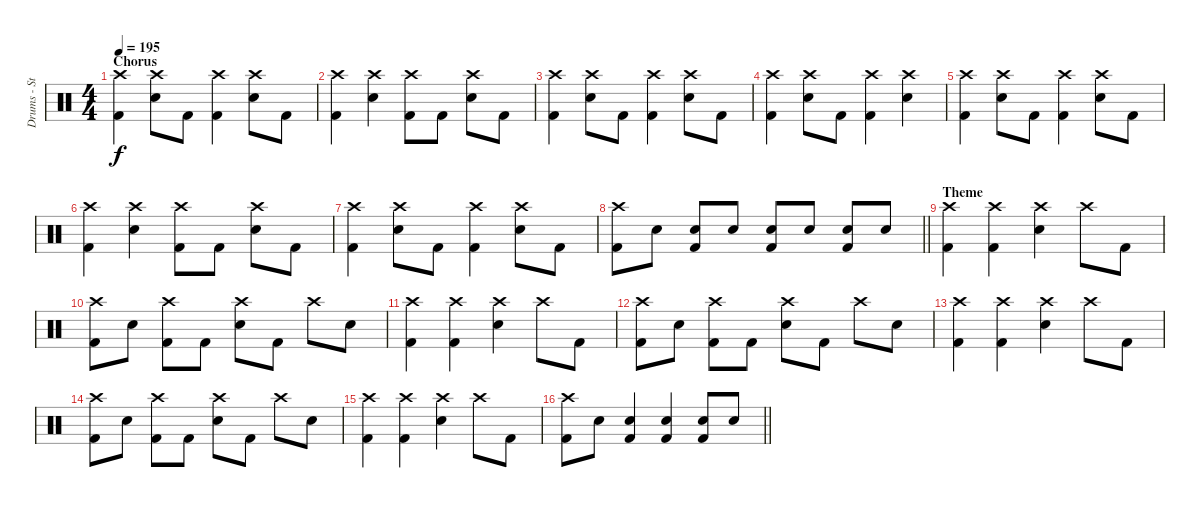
\track ("Drums - Steve" "Drums - St") {instrument percussion}
\staff {score}
\articulation defaults
\ts (4 4)
\section ("" "Chorus")
\tempo 195
\clef neutral
\ks c
("Crash high (hit)" "Kick (hit) 2").4{dy f} ("Crash high (hit)" "Snare (hit) 2").8 "Kick (hit) 2".8 ("Crash high (hit)" "Kick (hit) 2").4 ("Crash high (hit)" "Snare (hit) 2").8 "Kick (hit) 2".8 |
("Crash high (hit)" "Kick (hit) 2").4 ("Crash high (hit)" "Snare (hit) 2").4 ("Crash high (hit)" "Kick (hit) 2").8 "Kick (hit) 2".8 ("Crash high (hit)" "Snare (hit) 2").8 "Kick (hit) 2".8 |
("Crash high (hit)" "Kick (hit) 2").4 ("Crash high (hit)" "Snare (hit) 2").8 "Kick (hit) 2".8 ("Crash high (hit)" "Kick (hit) 2").4 ("Crash high (hit)" "Snare (hit) 2").8 "Kick (hit) 2".8 |
("Crash high (hit)" "Kick (hit) 2").4 ("Crash high (hit)" "Snare (hit) 2").8 "Kick (hit) 2".8 ("Crash high (hit)" "Kick (hit) 2").4 ("Crash high (hit)" "Snare (hit) 2").4 |
("Crash high (hit)" "Kick (hit) 2").4 ("Crash high (hit)" "Snare (hit) 2").8 "Kick (hit) 2".8 ("Crash high (hit)" "Kick (hit) 2").4 ("Crash high (hit)" "Snare (hit) 2").8 "Kick (hit) 2".8 |
("Crash high (hit)" "Kick (hit) 2").4 ("Crash high (hit)" "Snare (hit) 2").4 ("Crash high (hit)" "Kick (hit) 2").8 "Kick (hit) 2".8 ("Crash high (hit)" "Snare (hit) 2").8 "Kick (hit) 2".8 |
("Crash high (hit)" "Kick (hit) 2").4 ("Crash high (hit)" "Snare (hit) 2").8 "Kick (hit) 2".8 ("Crash high (hit)" "Kick (hit) 2").4 ("Crash high (hit)" "Snare (hit) 2").8 "Kick (hit) 2".8 |
\barLineRight lightlight
("Crash high (hit)" "Kick (hit) 2").8 "Snare (hit) 2".8 ("Snare (hit) 2" "Kick (hit) 2").8 "Snare (hit) 2".8 ("Snare (hit) 2" "Kick (hit) 2").8 "Snare (hit) 2".8 ("Snare (hit) 2" "Kick (hit) 2").8 "Snare (hit) 2".8 |
\section ("" "Theme")
("Crash high (hit)" "Kick (hit) 2").4 ("Crash high (hit)" "Kick (hit) 2").4 ("Crash high (hit)" "Snare (hit) 2").4 "Crash high (hit)".8 "Kick (hit) 2".8 |
("Crash high (hit)" "Kick (hit) 2").8 "Snare (hit) 2".8 ("Crash high (hit)" "Kick (hit) 2").8 "Kick (hit) 2".8 ("Crash high (hit)" "Snare (hit) 2").8 "Kick (hit) 2".8 "Crash high (hit)".8 "Snare (hit) 2".8 |
("Crash high (hit)" "Kick (hit) 2").4 ("Crash high (hit)" "Kick (hit) 2").4 ("Crash high (hit)" "Snare (hit) 2").4 "Crash high (hit)".8 "Kick (hit) 2".8 |
("Crash high (hit)" "Kick (hit) 2").8 "Snare (hit) 2".8 ("Crash high (hit)" "Kick (hit) 2").8 "Kick (hit) 2".8 ("Crash high (hit)" "Snare (hit) 2").8 "Kick (hit) 2".8 "Crash high (hit)".8 "Snare (hit) 2".8 |
("Crash high (hit)" "Kick (hit) 2").4 ("Crash high (hit)" "Kick (hit) 2").4 ("Crash high (hit)" "Snare (hit) 2").4 "Crash high (hit)".8 "Kick (hit) 2".8 |
("Crash high (hit)" "Kick (hit) 2").8 "Snare (hit) 2".8 ("Crash high (hit)" "Kick (hit) 2").8 "Kick (hit) 2".8 ("Crash high (hit)" "Snare (hit) 2").8 "Kick (hit) 2".8 "Crash high (hit)".8 "Snare (hit) 2".8 |
("Crash high (hit)" "Kick (hit) 2").4 ("Crash high (hit)" "Kick (hit) 2").4 ("Crash high (hit)" "Snare (hit) 2").4 "Crash high (hit)".8 "Kick (hit) 2".8 |
\barLineRight lightlight
("Crash high (hit)" "Kick (hit) 2").8 "Snare (hit) 2".8 ("Snare (hit) 2" "Kick (hit) 2").4 ("Snare (hit) 2" "Kick (hit) 2").4 ("Snare (hit) 2" "Kick (hit) 2").8 "Snare (hit) 2".8
